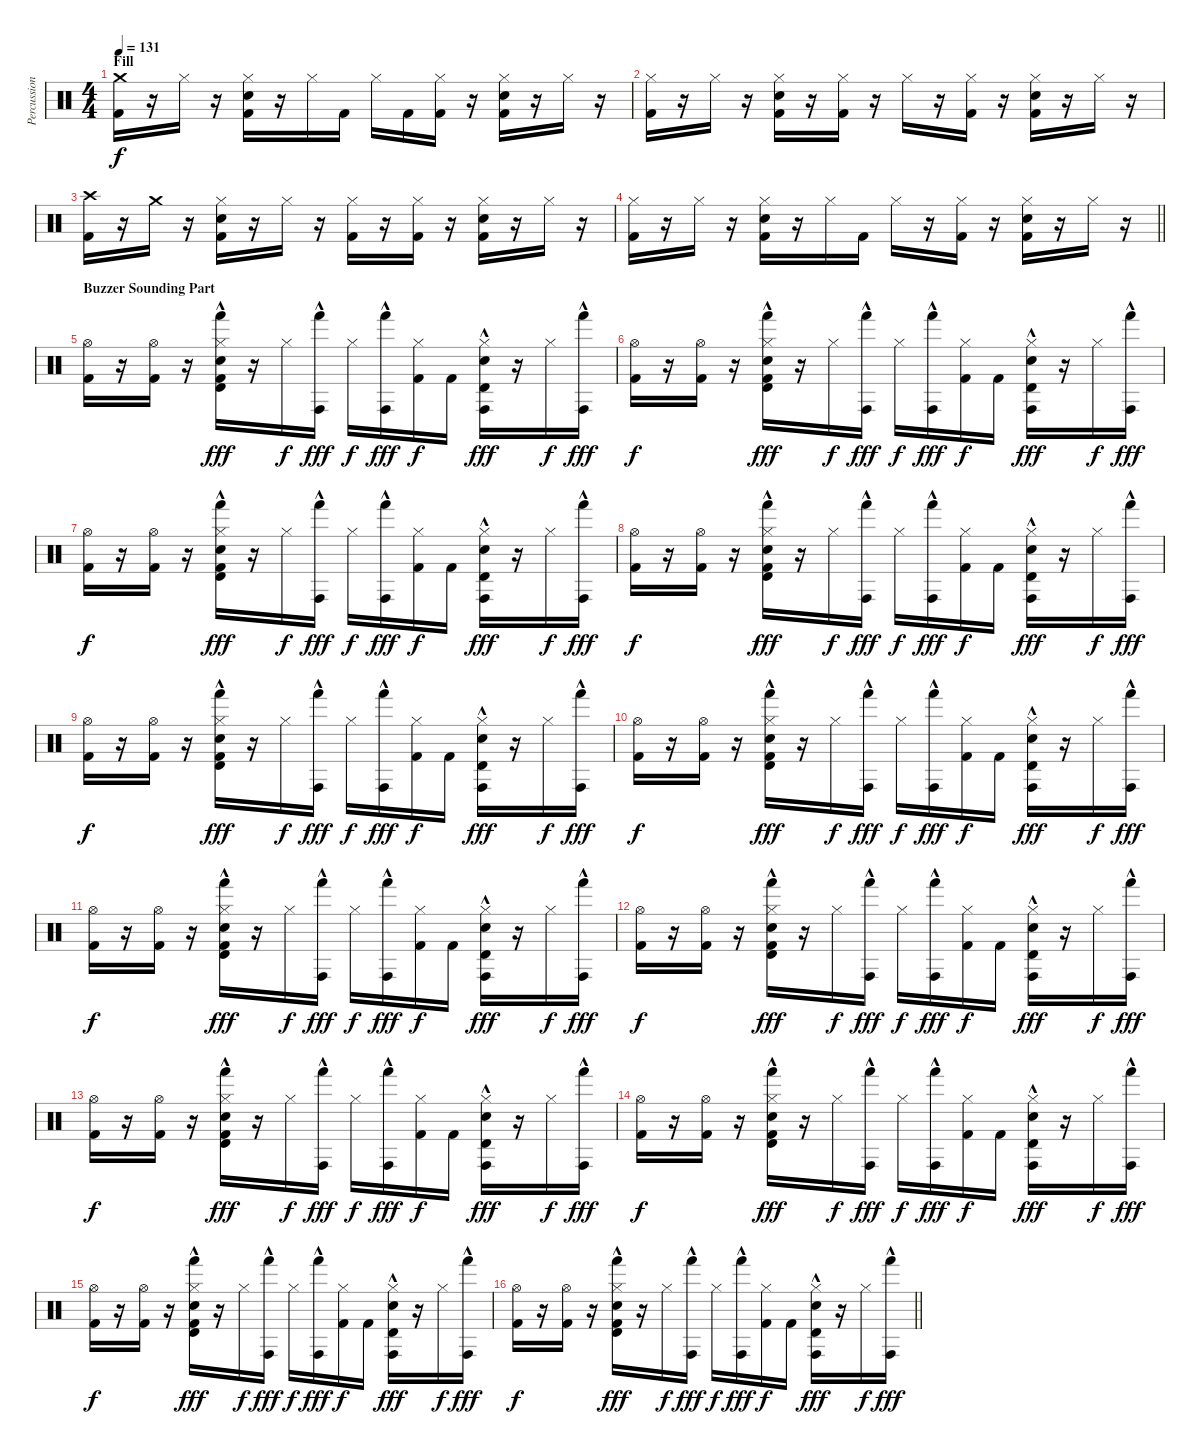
\track ("Percussion" "Percussion") {instrument percussion}
\staff {score}
\articulation defaults
\ts (4 4)
\section ("" "Fill")
\tempo 131
\clef neutral
\ks c
("Crash medium (hit)" "Kick (hit) 2").16{dy f} r.16 "Hi-Hat (closed)".16 r.16 ("Hi-Hat (closed)" "Electric Snare (hit)" "Kick (hit) 2").16 r.16 "Hi-Hat (closed)".16 "Kick (hit) 2".16 "Hi-Hat (closed)".16 "Kick (hit) 2".16 ("Hi-Hat (closed)" "Kick (hit) 2").16 r.16 ("Hi-Hat (closed)" "Electric Snare (hit)" "Kick (hit) 2").16 r.16 "Hi-Hat (closed)".16 r.16 |
("Hi-Hat (closed)" "Kick (hit) 2").16 r.16 "Hi-Hat (closed)".16 r.16 ("Hi-Hat (closed)" "Electric Snare (hit)" "Kick (hit) 2").16 r.16 ("Hi-Hat (closed)" "Kick (hit) 2").16 r.16 "Hi-Hat (closed)".16 r.16 ("Hi-Hat (closed)" "Kick (hit) 2").16 r.16 ("Hi-Hat (closed)" "Electric Snare (hit)" "Kick (hit) 2").16 r.16 "Hi-Hat (closed)".16 r.16 |
("Crash high (hit)" "Kick (hit) 2").16 r.16 "Crash medium (hit)".16 r.16 ("Hi-Hat (closed)" "Electric Snare (hit)" "Kick (hit) 2").16 r.16 "Hi-Hat (closed)".16 r.16 ("Hi-Hat (closed)" "Kick (hit) 2").16 r.16 ("Hi-Hat (closed)" "Kick (hit) 2").16 r.16 ("Hi-Hat (closed)" "Electric Snare (hit)" "Kick (hit) 2").16 r.16 "Hi-Hat (closed)".16 r.16 |
\barLineRight lightlight
("Hi-Hat (closed)" "Kick (hit) 2").16 r.16 "Hi-Hat (closed)".16 r.16 ("Hi-Hat (closed)" "Electric Snare (hit)" "Kick (hit) 2").16 r.16 "Hi-Hat (closed)".16 "Kick (hit) 2".16 "Hi-Hat (closed)".16 r.16 ("Hi-Hat (closed)" "Kick (hit) 2").16 r.16 ("Hi-Hat (closed)" "Electric Snare (hit)" "Kick (hit) 2").16 r.16 "Hi-Hat (closed)".16 r.16 |
\section ("" "Buzzer Sounding Part")
("Hi-Hat (open)" "Kick (hit) 2").16 r.16 ("Hi-Hat (open)" "Kick (hit) 2").16 r.16 ("Hi-Hat (closed)" "Hand (hit)"{hac} "Timbale high (hit)" "Electric Snare (hit)" "Kick (hit) 2").16{dy fff} r.16 "Hi-Hat (closed)".16{dy f} ("Conga high (hit)"{hac} "Hand (hit)"{hac}).16{dy fff} "Hi-Hat (closed)".16{dy f} ("Conga high (hit)"{hac} "Hand (hit)"{hac}).16{dy fff} ("Hi-Hat (closed)" "Kick (hit) 2").16{dy f} "Kick (hit) 2".16 ("Hi-Hat (closed)" "Conga high (hit)"{hac} "Timbale high (hit)" "Electric Snare (hit)").16{dy fff} r.16 "Hi-Hat (closed)".16{dy f} ("Conga high (hit)"{hac} "Hand (hit)"{hac}).16{dy fff} |
("Hi-Hat (open)" "Kick (hit) 2").16{dy f} r.16 ("Hi-Hat (open)" "Kick (hit) 2").16 r.16 ("Hi-Hat (closed)" "Hand (hit)"{hac} "Timbale high (hit)" "Electric Snare (hit)" "Kick (hit) 2").16{dy fff} r.16 "Hi-Hat (closed)".16{dy f} ("Conga high (hit)"{hac} "Hand (hit)"{hac}).16{dy fff} "Hi-Hat (closed)".16{dy f} ("Conga high (hit)"{hac} "Hand (hit)"{hac}).16{dy fff} ("Hi-Hat (closed)" "Kick (hit) 2").16{dy f} "Kick (hit) 2".16 ("Hi-Hat (closed)" "Conga high (hit)"{hac} "Timbale high (hit)" "Electric Snare (hit)").16{dy fff} r.16 "Hi-Hat (closed)".16{dy f} ("Conga high (hit)"{hac} "Hand (hit)"{hac}).16{dy fff} |
("Hi-Hat (open)" "Kick (hit) 2").16{dy f} r.16 ("Hi-Hat (open)" "Kick (hit) 2").16 r.16 ("Hi-Hat (closed)" "Hand (hit)"{hac} "Timbale high (hit)" "Electric Snare (hit)" "Kick (hit) 2").16{dy fff} r.16 "Hi-Hat (closed)".16{dy f} ("Conga high (hit)"{hac} "Hand (hit)"{hac}).16{dy fff} "Hi-Hat (closed)".16{dy f} ("Conga high (hit)"{hac} "Hand (hit)"{hac}).16{dy fff} ("Hi-Hat (closed)" "Kick (hit) 2").16{dy f} "Kick (hit) 2".16 ("Hi-Hat (closed)" "Conga high (hit)"{hac} "Timbale high (hit)" "Electric Snare (hit)").16{dy fff} r.16 "Hi-Hat (closed)".16{dy f} ("Conga high (hit)"{hac} "Hand (hit)"{hac}).16{dy fff} |
("Hi-Hat (open)" "Kick (hit) 2").16{dy f} r.16 ("Hi-Hat (open)" "Kick (hit) 2").16 r.16 ("Hi-Hat (closed)" "Hand (hit)"{hac} "Timbale high (hit)" "Electric Snare (hit)" "Kick (hit) 2").16{dy fff} r.16 "Hi-Hat (closed)".16{dy f} ("Conga high (hit)"{hac} "Hand (hit)"{hac}).16{dy fff} "Hi-Hat (closed)".16{dy f} ("Conga high (hit)"{hac} "Hand (hit)"{hac}).16{dy fff} ("Hi-Hat (closed)" "Kick (hit) 2").16{dy f} "Kick (hit) 2".16 ("Hi-Hat (closed)" "Conga high (hit)"{hac} "Timbale high (hit)" "Electric Snare (hit)").16{dy fff} r.16 "Hi-Hat (closed)".16{dy f} ("Conga high (hit)"{hac} "Hand (hit)"{hac}).16{dy fff} |
("Hi-Hat (open)" "Kick (hit) 2").16{dy f} r.16 ("Hi-Hat (open)" "Kick (hit) 2").16 r.16 ("Hi-Hat (closed)" "Hand (hit)"{hac} "Timbale high (hit)" "Electric Snare (hit)" "Kick (hit) 2").16{dy fff} r.16 "Hi-Hat (closed)".16{dy f} ("Conga high (hit)"{hac} "Hand (hit)"{hac}).16{dy fff} "Hi-Hat (closed)".16{dy f} ("Conga high (hit)"{hac} "Hand (hit)"{hac}).16{dy fff} ("Hi-Hat (closed)" "Kick (hit) 2").16{dy f} "Kick (hit) 2".16 ("Hi-Hat (closed)" "Conga high (hit)"{hac} "Timbale high (hit)" "Electric Snare (hit)").16{dy fff} r.16 "Hi-Hat (closed)".16{dy f} ("Conga high (hit)"{hac} "Hand (hit)"{hac}).16{dy fff} |
("Hi-Hat (open)" "Kick (hit) 2").16{dy f} r.16 ("Hi-Hat (open)" "Kick (hit) 2").16 r.16 ("Hi-Hat (closed)" "Hand (hit)"{hac} "Timbale high (hit)" "Electric Snare (hit)" "Kick (hit) 2").16{dy fff} r.16 "Hi-Hat (closed)".16{dy f} ("Conga high (hit)"{hac} "Hand (hit)"{hac}).16{dy fff} "Hi-Hat (closed)".16{dy f} ("Conga high (hit)"{hac} "Hand (hit)"{hac}).16{dy fff} ("Hi-Hat (closed)" "Kick (hit) 2").16{dy f} "Kick (hit) 2".16 ("Hi-Hat (closed)" "Conga high (hit)"{hac} "Timbale high (hit)" "Electric Snare (hit)").16{dy fff} r.16 "Hi-Hat (closed)".16{dy f} ("Conga high (hit)"{hac} "Hand (hit)"{hac}).16{dy fff} |
("Hi-Hat (open)" "Kick (hit) 2").16{dy f} r.16 ("Hi-Hat (open)" "Kick (hit) 2").16 r.16 ("Hi-Hat (closed)" "Hand (hit)"{hac} "Timbale high (hit)" "Electric Snare (hit)" "Kick (hit) 2").16{dy fff} r.16 "Hi-Hat (closed)".16{dy f} ("Conga high (hit)"{hac} "Hand (hit)"{hac}).16{dy fff} "Hi-Hat (closed)".16{dy f} ("Conga high (hit)"{hac} "Hand (hit)"{hac}).16{dy fff} ("Hi-Hat (closed)" "Kick (hit) 2").16{dy f} "Kick (hit) 2".16 ("Hi-Hat (closed)" "Conga high (hit)"{hac} "Timbale high (hit)" "Electric Snare (hit)").16{dy fff} r.16 "Hi-Hat (closed)".16{dy f} ("Conga high (hit)"{hac} "Hand (hit)"{hac}).16{dy fff} |
("Hi-Hat (open)" "Kick (hit) 2").16{dy f} r.16 ("Hi-Hat (open)" "Kick (hit) 2").16 r.16 ("Hi-Hat (closed)" "Hand (hit)"{hac} "Timbale high (hit)" "Electric Snare (hit)" "Kick (hit) 2").16{dy fff} r.16 "Hi-Hat (closed)".16{dy f} ("Conga high (hit)"{hac} "Hand (hit)"{hac}).16{dy fff} "Hi-Hat (closed)".16{dy f} ("Conga high (hit)"{hac} "Hand (hit)"{hac}).16{dy fff} ("Hi-Hat (closed)" "Kick (hit) 2").16{dy f} "Kick (hit) 2".16 ("Hi-Hat (closed)" "Conga high (hit)"{hac} "Timbale high (hit)" "Electric Snare (hit)").16{dy fff} r.16 "Hi-Hat (closed)".16{dy f} ("Conga high (hit)"{hac} "Hand (hit)"{hac}).16{dy fff} |
("Hi-Hat (open)" "Kick (hit) 2").16{dy f} r.16 ("Hi-Hat (open)" "Kick (hit) 2").16 r.16 ("Hi-Hat (closed)" "Hand (hit)"{hac} "Timbale high (hit)" "Electric Snare (hit)" "Kick (hit) 2").16{dy fff} r.16 "Hi-Hat (closed)".16{dy f} ("Conga high (hit)"{hac} "Hand (hit)"{hac}).16{dy fff} "Hi-Hat (closed)".16{dy f} ("Conga high (hit)"{hac} "Hand (hit)"{hac}).16{dy fff} ("Hi-Hat (closed)" "Kick (hit) 2").16{dy f} "Kick (hit) 2".16 ("Hi-Hat (closed)" "Conga high (hit)"{hac} "Timbale high (hit)" "Electric Snare (hit)").16{dy fff} r.16 "Hi-Hat (closed)".16{dy f} ("Conga high (hit)"{hac} "Hand (hit)"{hac}).16{dy fff} |
("Hi-Hat (open)" "Kick (hit) 2").16{dy f} r.16 ("Hi-Hat (open)" "Kick (hit) 2").16 r.16 ("Hi-Hat (closed)" "Hand (hit)"{hac} "Timbale high (hit)" "Electric Snare (hit)" "Kick (hit) 2").16{dy fff} r.16 "Hi-Hat (closed)".16{dy f} ("Conga high (hit)"{hac} "Hand (hit)"{hac}).16{dy fff} "Hi-Hat (closed)".16{dy f} ("Conga high (hit)"{hac} "Hand (hit)"{hac}).16{dy fff} ("Hi-Hat (closed)" "Kick (hit) 2").16{dy f} "Kick (hit) 2".16 ("Hi-Hat (closed)" "Conga high (hit)"{hac} "Timbale high (hit)" "Electric Snare (hit)").16{dy fff} r.16 "Hi-Hat (closed)".16{dy f} ("Conga high (hit)"{hac} "Hand (hit)"{hac}).16{dy fff} |
("Hi-Hat (open)" "Kick (hit) 2").16{dy f} r.16 ("Hi-Hat (open)" "Kick (hit) 2").16 r.16 ("Hi-Hat (closed)" "Hand (hit)"{hac} "Timbale high (hit)" "Electric Snare (hit)" "Kick (hit) 2").16{dy fff} r.16 "Hi-Hat (closed)".16{dy f} ("Conga high (hit)"{hac} "Hand (hit)"{hac}).16{dy fff} "Hi-Hat (closed)".16{dy f} ("Conga high (hit)"{hac} "Hand (hit)"{hac}).16{dy fff} ("Hi-Hat (closed)" "Kick (hit) 2").16{dy f} "Kick (hit) 2".16 ("Hi-Hat (closed)" "Conga high (hit)"{hac} "Timbale high (hit)" "Electric Snare (hit)").16{dy fff} r.16 "Hi-Hat (closed)".16{dy f} ("Conga high (hit)"{hac} "Hand (hit)"{hac}).16{dy fff} |
\barLineRight lightlight
("Hi-Hat (open)" "Kick (hit) 2").16{dy f} r.16 ("Hi-Hat (open)" "Kick (hit) 2").16 r.16 ("Hi-Hat (closed)" "Hand (hit)"{hac} "Timbale high (hit)" "Electric Snare (hit)" "Kick (hit) 2").16{dy fff} r.16 "Hi-Hat (closed)".16{dy f} ("Conga high (hit)"{hac} "Hand (hit)"{hac}).16{dy fff} "Hi-Hat (closed)".16{dy f} ("Conga high (hit)"{hac} "Hand (hit)"{hac}).16{dy fff} ("Hi-Hat (closed)" "Kick (hit) 2").16{dy f} "Kick (hit) 2".16 ("Hi-Hat (closed)" "Conga high (hit)"{hac} "Timbale high (hit)" "Electric Snare (hit)").16{dy fff} r.16 "Hi-Hat (closed)".16{dy f} ("Conga high (hit)"{hac} "Hand (hit)"{hac}).16{dy fff}
